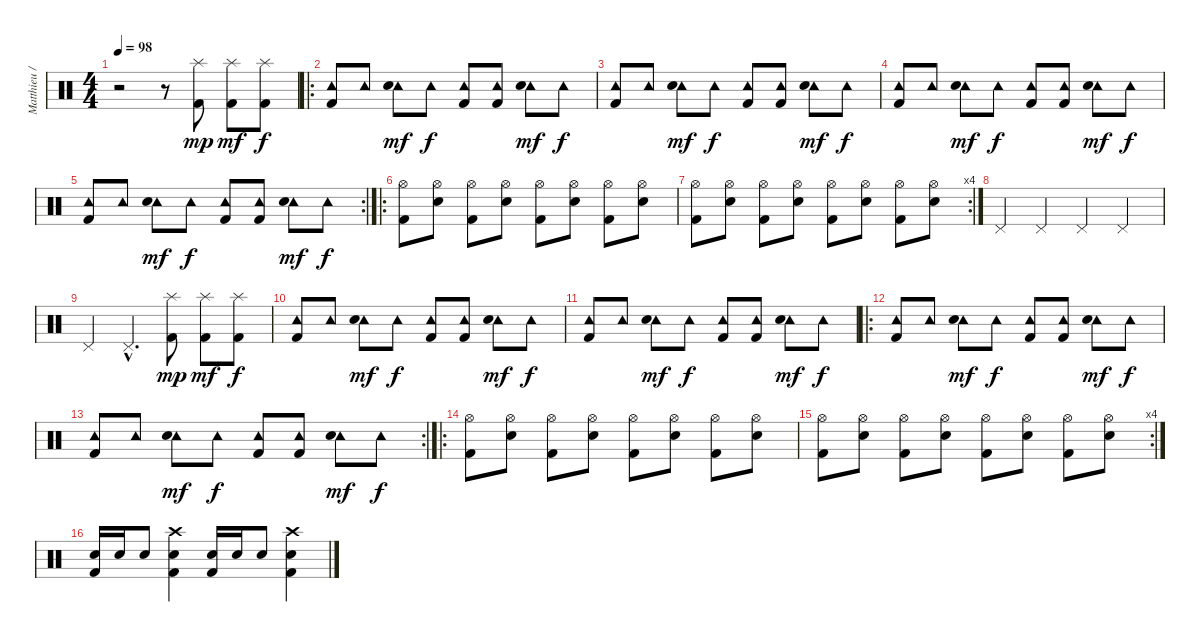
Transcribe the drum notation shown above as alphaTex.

\track ("Matthieu / batterie" "Matthieu /") {instrument percussion}
\staff {score}
\articulation defaults
\ts (4 4)
\tempo 98
\clef neutral
\ks c
r.2{dy mp} r.8 ("Splash (hit)" "Kick (hit) 2").8 ("Splash (hit)" "Kick (hit) 2").8{dy mf} ("Splash (hit)" "Kick (hit) 2").8{dy f} |
\ro
("Tambourine (hit)" "Kick (hit) 2").8 "Tambourine (hit)".8 ("Tambourine (hit)" "Snare (hit) 2").8{dy mf} "Tambourine (hit)".8{dy f} ("Tambourine (hit)" "Kick (hit) 2").8 ("Tambourine (hit)" "Kick (hit) 2").8 ("Tambourine (hit)" "Snare (hit) 2").8{dy mf} "Tambourine (hit)".8{dy f} |
("Tambourine (hit)" "Kick (hit) 2").8 "Tambourine (hit)".8 ("Tambourine (hit)" "Snare (hit) 2").8{dy mf} "Tambourine (hit)".8{dy f} ("Tambourine (hit)" "Kick (hit) 2").8 ("Tambourine (hit)" "Kick (hit) 2").8 ("Tambourine (hit)" "Snare (hit) 2").8{dy mf} "Tambourine (hit)".8{dy f} |
("Tambourine (hit)" "Kick (hit) 2").8 "Tambourine (hit)".8 ("Tambourine (hit)" "Snare (hit) 2").8{dy mf} "Tambourine (hit)".8{dy f} ("Tambourine (hit)" "Kick (hit) 2").8 ("Tambourine (hit)" "Kick (hit) 2").8 ("Tambourine (hit)" "Snare (hit) 2").8{dy mf} "Tambourine (hit)".8{dy f} |
\rc 2
("Tambourine (hit)" "Kick (hit) 2").8 "Tambourine (hit)".8 ("Tambourine (hit)" "Snare (hit) 2").8{dy mf} "Tambourine (hit)".8{dy f} ("Tambourine (hit)" "Kick (hit) 2").8 ("Tambourine (hit)" "Kick (hit) 2").8 ("Tambourine (hit)" "Snare (hit) 2").8{dy mf} "Tambourine (hit)".8{dy f} |
\ro
("Hi-Hat (open)" "Kick (hit) 2").8 ("Hi-Hat (open)" "Snare (hit) 2").8 ("Hi-Hat (open)" "Kick (hit) 2").8 ("Hi-Hat (open)" "Snare (hit) 2").8 ("Hi-Hat (open)" "Kick (hit) 2").8 ("Hi-Hat (open)" "Snare (hit) 2").8 ("Hi-Hat (open)" "Kick (hit) 2").8 ("Hi-Hat (open)" "Snare (hit) 2").8 |
\rc 4
("Hi-Hat (open)" "Kick (hit) 2").8 ("Hi-Hat (open)" "Snare (hit) 2").8 ("Hi-Hat (open)" "Kick (hit) 2").8 ("Hi-Hat (open)" "Snare (hit) 2").8 ("Hi-Hat (open)" "Kick (hit) 2").8 ("Hi-Hat (open)" "Snare (hit) 2").8 ("Hi-Hat (open)" "Kick (hit) 2").8 ("Hi-Hat (open)" "Snare (hit) 2").8 |
"Pedal Hi-Hat (hit)".4 "Pedal Hi-Hat (hit)".4 "Pedal Hi-Hat (hit)".4 "Pedal Hi-Hat (hit)".4 |
"Pedal Hi-Hat (hit)".4 "Pedal Hi-Hat (hit)"{hac}.4{d} ("Splash (hit)" "Kick (hit) 2").8{dy mp} ("Splash (hit)" "Kick (hit) 2").8{dy mf} ("Splash (hit)" "Kick (hit) 2").8{dy f} |
("Tambourine (hit)" "Kick (hit) 2").8 "Tambourine (hit)".8 ("Tambourine (hit)" "Snare (hit) 2").8{dy mf} "Tambourine (hit)".8{dy f} ("Tambourine (hit)" "Kick (hit) 2").8 ("Tambourine (hit)" "Kick (hit) 2").8 ("Tambourine (hit)" "Snare (hit) 2").8{dy mf} "Tambourine (hit)".8{dy f} |
("Tambourine (hit)" "Kick (hit) 2").8 "Tambourine (hit)".8 ("Tambourine (hit)" "Snare (hit) 2").8{dy mf} "Tambourine (hit)".8{dy f} ("Tambourine (hit)" "Kick (hit) 2").8 ("Tambourine (hit)" "Kick (hit) 2").8 ("Tambourine (hit)" "Snare (hit) 2").8{dy mf} "Tambourine (hit)".8{dy f} |
\ro
("Tambourine (hit)" "Kick (hit) 2").8 "Tambourine (hit)".8 ("Tambourine (hit)" "Snare (hit) 2").8{dy mf} "Tambourine (hit)".8{dy f} ("Tambourine (hit)" "Kick (hit) 2").8 ("Tambourine (hit)" "Kick (hit) 2").8 ("Tambourine (hit)" "Snare (hit) 2").8{dy mf} "Tambourine (hit)".8{dy f} |
\rc 2
("Tambourine (hit)" "Kick (hit) 2").8 "Tambourine (hit)".8 ("Tambourine (hit)" "Snare (hit) 2").8{dy mf} "Tambourine (hit)".8{dy f} ("Tambourine (hit)" "Kick (hit) 2").8 ("Tambourine (hit)" "Kick (hit) 2").8 ("Tambourine (hit)" "Snare (hit) 2").8{dy mf} "Tambourine (hit)".8{dy f} |
\ro
("Hi-Hat (open)" "Kick (hit) 2").8 ("Hi-Hat (open)" "Snare (hit) 2").8 ("Hi-Hat (open)" "Kick (hit) 2").8 ("Hi-Hat (open)" "Snare (hit) 2").8 ("Hi-Hat (open)" "Kick (hit) 2").8 ("Hi-Hat (open)" "Snare (hit) 2").8 ("Hi-Hat (open)" "Kick (hit) 2").8 ("Hi-Hat (open)" "Snare (hit) 2").8 |
\rc 4
("Hi-Hat (open)" "Kick (hit) 2").8 ("Hi-Hat (open)" "Snare (hit) 2").8 ("Hi-Hat (open)" "Kick (hit) 2").8 ("Hi-Hat (open)" "Snare (hit) 2").8 ("Hi-Hat (open)" "Kick (hit) 2").8 ("Hi-Hat (open)" "Snare (hit) 2").8 ("Hi-Hat (open)" "Kick (hit) 2").8 ("Hi-Hat (open)" "Snare (hit) 2").8 |
("Snare (hit) 2" "Kick (hit) 2").16 "Snare (hit) 2".16 "Snare (hit) 2".8 ("Crash high (hit)" "Snare (hit) 2" "Kick (hit) 2").4 ("Snare (hit) 2" "Kick (hit) 2").16 "Snare (hit) 2".16 "Snare (hit) 2".8 ("Crash high (hit)" "Snare (hit) 2" "Kick (hit) 2").4
